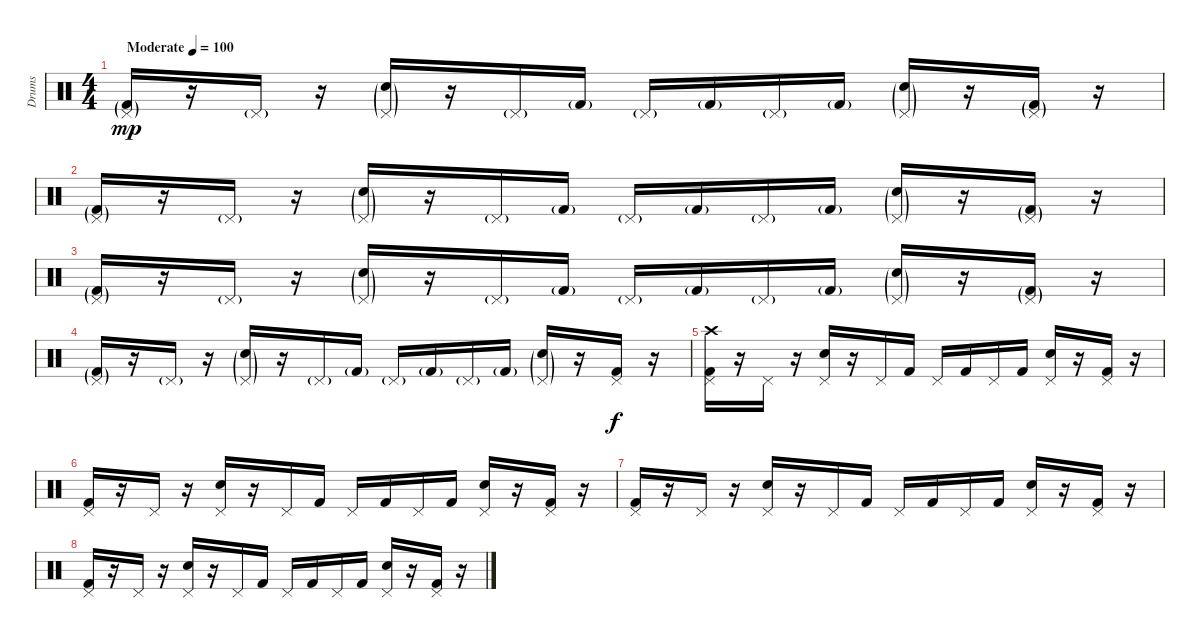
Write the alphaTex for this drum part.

\track ("Drums" "Drums") {instrument percussion}
\staff {score}
\articulation defaults
\ts (4 4)
\tempo (100 "Moderate")
\clef neutral
\ks c
("Pedal Hi-Hat (hit)"{g} "Kick (hit) 2"{g}).16{dy mp} r.16 "Pedal Hi-Hat (hit)"{g}.16 r.16 ("Pedal Hi-Hat (hit)"{g} "Snare (hit) 2"{g}).16 r.16 "Pedal Hi-Hat (hit)"{g}.16 "Kick (hit) 2"{g}.16 "Pedal Hi-Hat (hit)"{g}.16 "Kick (hit) 2"{g}.16 "Pedal Hi-Hat (hit)"{g}.16 "Kick (hit) 2"{g}.16 ("Pedal Hi-Hat (hit)"{g} "Snare (hit) 2"{g}).16 r.16 ("Pedal Hi-Hat (hit)"{g} "Kick (hit) 2"{g}).16 r.16 |
("Pedal Hi-Hat (hit)"{g} "Kick (hit) 2"{g}).16 r.16 "Pedal Hi-Hat (hit)"{g}.16 r.16 ("Pedal Hi-Hat (hit)"{g} "Snare (hit) 2"{g}).16 r.16 "Pedal Hi-Hat (hit)"{g}.16 "Kick (hit) 2"{g}.16 "Pedal Hi-Hat (hit)"{g}.16 "Kick (hit) 2"{g}.16 "Pedal Hi-Hat (hit)"{g}.16 "Kick (hit) 2"{g}.16 ("Pedal Hi-Hat (hit)"{g} "Snare (hit) 2"{g}).16 r.16 ("Pedal Hi-Hat (hit)"{g} "Kick (hit) 2"{g}).16 r.16 |
("Pedal Hi-Hat (hit)"{g} "Kick (hit) 2"{g}).16 r.16 "Pedal Hi-Hat (hit)"{g}.16 r.16 ("Pedal Hi-Hat (hit)"{g} "Snare (hit) 2"{g}).16 r.16 "Pedal Hi-Hat (hit)"{g}.16 "Kick (hit) 2"{g}.16 "Pedal Hi-Hat (hit)"{g}.16 "Kick (hit) 2"{g}.16 "Pedal Hi-Hat (hit)"{g}.16 "Kick (hit) 2"{g}.16 ("Pedal Hi-Hat (hit)"{g} "Snare (hit) 2"{g}).16 r.16 ("Pedal Hi-Hat (hit)"{g} "Kick (hit) 2"{g}).16 r.16 |
("Pedal Hi-Hat (hit)"{g} "Kick (hit) 2"{g}).16 r.16 "Pedal Hi-Hat (hit)"{g}.16 r.16 ("Pedal Hi-Hat (hit)"{g} "Snare (hit) 2"{g}).16 r.16 "Pedal Hi-Hat (hit)"{g}.16 "Kick (hit) 2"{g}.16 "Pedal Hi-Hat (hit)"{g}.16 "Kick (hit) 2"{g}.16 "Pedal Hi-Hat (hit)"{g}.16 "Kick (hit) 2"{g}.16 ("Pedal Hi-Hat (hit)"{g} "Snare (hit) 2"{g}).16 r.16 ("Pedal Hi-Hat (hit)" "Kick (hit) 2").16{dy f} r.16 |
("Crash high (hit)" "Pedal Hi-Hat (hit)" "Kick (hit) 2").16 r.16 "Pedal Hi-Hat (hit)".16 r.16 ("Pedal Hi-Hat (hit)" "Snare (hit) 2").16 r.16 "Pedal Hi-Hat (hit)".16 "Kick (hit) 2".16 "Pedal Hi-Hat (hit)".16 "Kick (hit) 2".16 "Pedal Hi-Hat (hit)".16 "Kick (hit) 2".16 ("Pedal Hi-Hat (hit)" "Snare (hit) 2").16 r.16 ("Pedal Hi-Hat (hit)" "Kick (hit) 2").16 r.16 |
("Pedal Hi-Hat (hit)" "Kick (hit) 2").16 r.16 "Pedal Hi-Hat (hit)".16 r.16 ("Pedal Hi-Hat (hit)" "Snare (hit) 2").16 r.16 "Pedal Hi-Hat (hit)".16 "Kick (hit) 2".16 "Pedal Hi-Hat (hit)".16 "Kick (hit) 2".16 "Pedal Hi-Hat (hit)".16 "Kick (hit) 2".16 ("Pedal Hi-Hat (hit)" "Snare (hit) 2").16 r.16 ("Pedal Hi-Hat (hit)" "Kick (hit) 2").16 r.16 |
("Pedal Hi-Hat (hit)" "Kick (hit) 2").16 r.16 "Pedal Hi-Hat (hit)".16 r.16 ("Pedal Hi-Hat (hit)" "Snare (hit) 2").16 r.16 "Pedal Hi-Hat (hit)".16 "Kick (hit) 2".16 "Pedal Hi-Hat (hit)".16 "Kick (hit) 2".16 "Pedal Hi-Hat (hit)".16 "Kick (hit) 2".16 ("Pedal Hi-Hat (hit)" "Snare (hit) 2").16 r.16 ("Pedal Hi-Hat (hit)" "Kick (hit) 2").16 r.16 |
("Pedal Hi-Hat (hit)" "Kick (hit) 2").16 r.16 "Pedal Hi-Hat (hit)".16 r.16 ("Pedal Hi-Hat (hit)" "Snare (hit) 2").16 r.16 "Pedal Hi-Hat (hit)".16 "Kick (hit) 2".16 "Pedal Hi-Hat (hit)".16 "Kick (hit) 2".16 "Pedal Hi-Hat (hit)".16 "Kick (hit) 2".16 ("Pedal Hi-Hat (hit)" "Snare (hit) 2").16 r.16 ("Pedal Hi-Hat (hit)" "Kick (hit) 2").16 r.16
